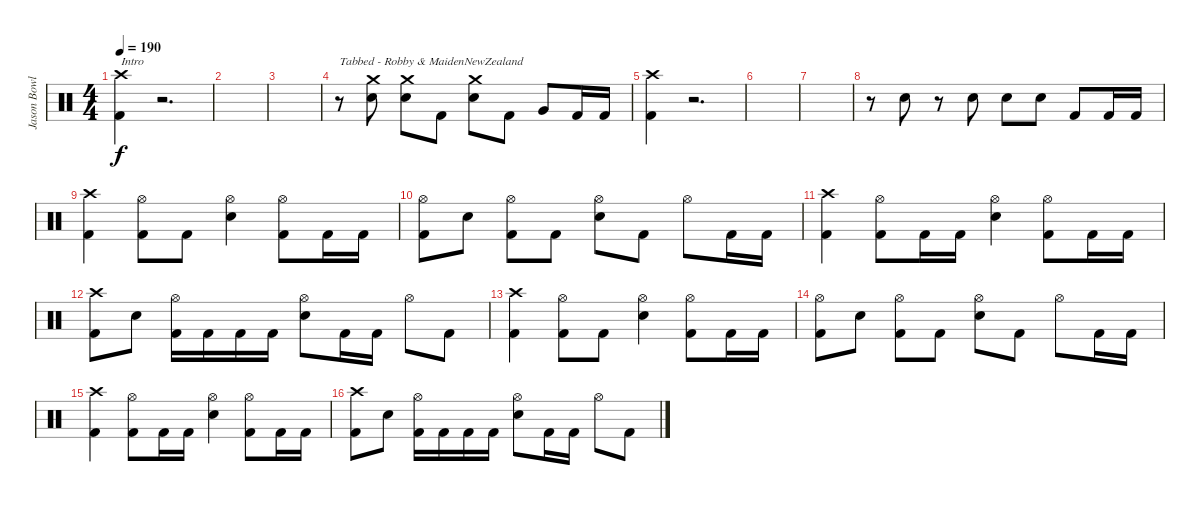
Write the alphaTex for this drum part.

\track ("Jason Bowld" "Jason Bowl") {instrument percussion}
\staff {score}
\articulation defaults
\ts (4 4)
\tempo 190
\clef neutral
\ks c
("Crash high (hit)" "Kick (hit) 2").4{txt "Intro" dy f} r.2{d} |
|
|
r.8{txt "Tabbed - Robby & MaidenNewZealand"} ("Crash medium (hit)" "Snare (hit) 2").8 ("Crash medium (hit)" "Snare (hit) 2").8 "Kick (hit) 2".8 ("Crash medium (hit)" "Snare (hit) 2").8 "Kick (hit) 2".8 "Very Low Tom (hit)".8 "Kick (hit) 2".16 "Kick (hit) 2".16 |
("Crash high (hit)" "Kick (hit) 2").4 r.2{d} |
|
|
r.8 "Snare (hit) 2".8 r.8 "Snare (hit) 2".8 "Snare (hit) 2".8 "Snare (hit) 2".8 "Kick (hit) 2".8 "Kick (hit) 2".16 "Kick (hit) 2".16 |
("Crash high (hit)" "Kick (hit) 2").4 ("Hi-Hat (open)" "Kick (hit) 2").8 "Kick (hit) 2".8 ("Hi-Hat (open)" "Snare (hit) 2").4 ("Hi-Hat (open)" "Kick (hit) 2").8 "Kick (hit) 2".16 "Kick (hit) 2".16 |
("Hi-Hat (open)" "Kick (hit) 2").8 "Snare (hit) 2".8 ("Hi-Hat (open)" "Kick (hit) 2").8 "Kick (hit) 2".8 ("Hi-Hat (open)" "Snare (hit) 2").8 "Kick (hit) 2".8 "Hi-Hat (open)".8 "Kick (hit) 2".16 "Kick (hit) 2".16 |
("Crash high (hit)" "Kick (hit) 2").4 ("Hi-Hat (open)" "Kick (hit) 2").8 "Kick (hit) 2".16 "Kick (hit) 2".16 ("Hi-Hat (open)" "Snare (hit) 2").4 ("Hi-Hat (open)" "Kick (hit) 2").8 "Kick (hit) 2".16 "Kick (hit) 2".16 |
("Crash high (hit)" "Kick (hit) 2").8 "Snare (hit) 2".8 ("Hi-Hat (open)" "Kick (hit) 2").16 "Kick (hit) 2".16 "Kick (hit) 2".16 "Kick (hit) 2".16 ("Hi-Hat (open)" "Snare (hit) 2").8 "Kick (hit) 2".16 "Kick (hit) 2".16 "Hi-Hat (open)".8 "Kick (hit) 2".8 |
("Crash high (hit)" "Kick (hit) 2").4 ("Hi-Hat (open)" "Kick (hit) 2").8 "Kick (hit) 2".8 ("Hi-Hat (open)" "Snare (hit) 2").4 ("Hi-Hat (open)" "Kick (hit) 2").8 "Kick (hit) 2".16 "Kick (hit) 2".16 |
("Hi-Hat (open)" "Kick (hit) 2").8 "Snare (hit) 2".8 ("Hi-Hat (open)" "Kick (hit) 2").8 "Kick (hit) 2".8 ("Hi-Hat (open)" "Snare (hit) 2").8 "Kick (hit) 2".8 "Hi-Hat (open)".8 "Kick (hit) 2".16 "Kick (hit) 2".16 |
("Crash high (hit)" "Kick (hit) 2").4 ("Hi-Hat (open)" "Kick (hit) 2").8 "Kick (hit) 2".16 "Kick (hit) 2".16 ("Hi-Hat (open)" "Snare (hit) 2").4 ("Hi-Hat (open)" "Kick (hit) 2").8 "Kick (hit) 2".16 "Kick (hit) 2".16 |
("Crash high (hit)" "Kick (hit) 2").8 "Snare (hit) 2".8 ("Hi-Hat (open)" "Kick (hit) 2").16 "Kick (hit) 2".16 "Kick (hit) 2".16 "Kick (hit) 2".16 ("Hi-Hat (open)" "Snare (hit) 2").8 "Kick (hit) 2".16 "Kick (hit) 2".16 "Hi-Hat (open)".8 "Kick (hit) 2".8
